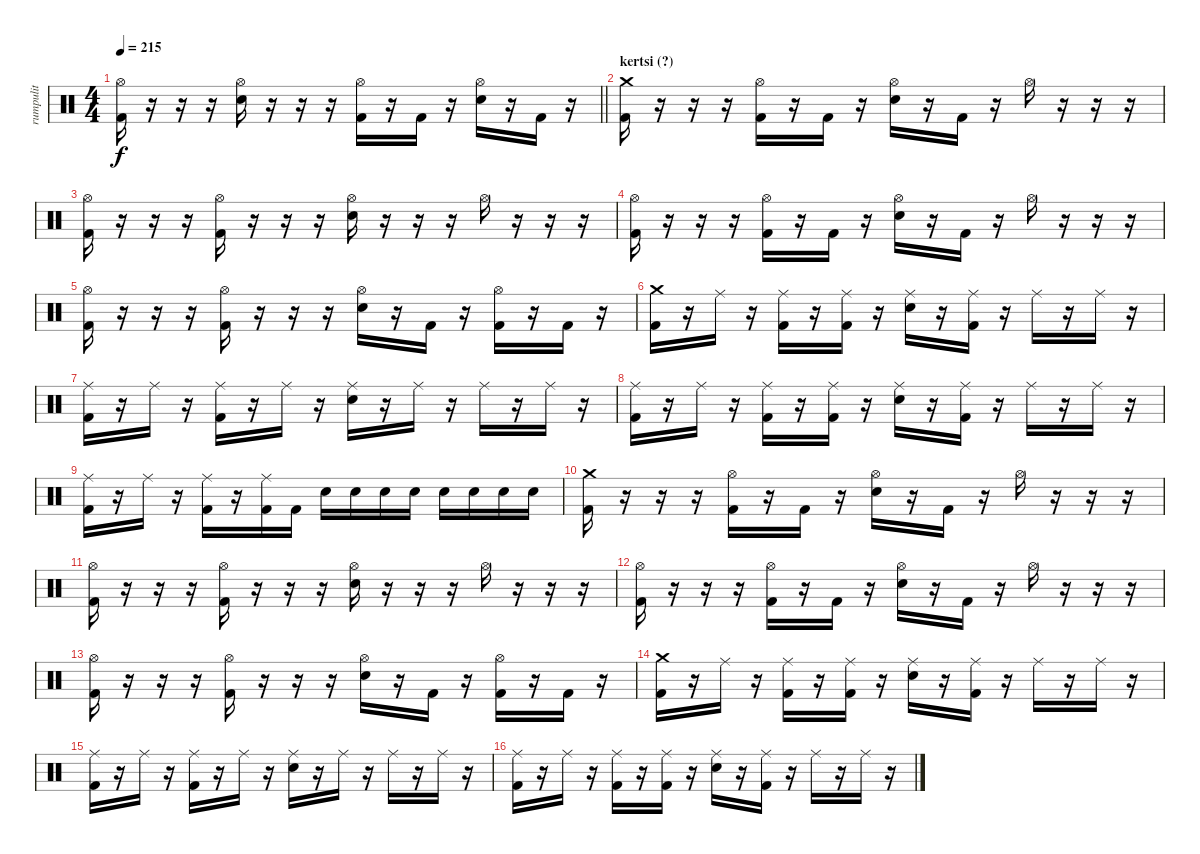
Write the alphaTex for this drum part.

\track ("rumpulit" "rumpulit") {instrument percussion}
\staff {score}
\articulation defaults
\ts (4 4)
\tempo 215
\clef neutral
\barLineRight lightlight
\ks c
("Hi-Hat (open)" "Kick (hit) 2").16{dy f} r.16 r.16 r.16 ("Hi-Hat (open)" "Electric Snare (hit)").16 r.16 r.16 r.16 ("Hi-Hat (open)" "Kick (hit) 2").16 r.16 "Kick (hit) 2".16 r.16 ("Hi-Hat (open)" "Electric Snare (hit)").16 r.16 "Kick (hit) 2".16 r.16 |
\section ("" "kertsi (?)")
("Crash medium (hit)" "Kick (hit) 2").16 r.16 r.16 r.16 ("Hi-Hat (open)" "Kick (hit) 2").16 r.16 "Kick (hit) 2".16 r.16 ("Hi-Hat (open)" "Electric Snare (hit)").16 r.16 "Kick (hit) 2".16 r.16 "Hi-Hat (open)".16 r.16 r.16 r.16 |
("Hi-Hat (open)" "Kick (hit) 2").16 r.16 r.16 r.16 ("Hi-Hat (open)" "Kick (hit) 2").16 r.16 r.16 r.16 ("Hi-Hat (open)" "Electric Snare (hit)").16 r.16 r.16 r.16 "Hi-Hat (open)".16 r.16 r.16 r.16 |
("Hi-Hat (open)" "Kick (hit) 2").16 r.16 r.16 r.16 ("Hi-Hat (open)" "Kick (hit) 2").16 r.16 "Kick (hit) 2".16 r.16 ("Hi-Hat (open)" "Electric Snare (hit)").16 r.16 "Kick (hit) 2".16 r.16 "Hi-Hat (open)".16 r.16 r.16 r.16 |
("Hi-Hat (open)" "Kick (hit) 2").16 r.16 r.16 r.16 ("Hi-Hat (open)" "Kick (hit) 2").16 r.16 r.16 r.16 ("Hi-Hat (open)" "Electric Snare (hit)").16 r.16 "Kick (hit) 2".16 r.16 ("Hi-Hat (open)" "Kick (hit) 2").16 r.16 "Kick (hit) 2".16 r.16 |
("Crash medium (hit)" "Kick (hit) 2").16 r.16 "Ride (middle)".16 r.16 ("Ride (middle)" "Kick (hit) 2").16 r.16 ("Ride (middle)" "Kick (hit) 2").16 r.16 ("Ride (middle)" "Electric Snare (hit)").16 r.16 ("Ride (middle)" "Kick (hit) 2").16 r.16 "Ride (middle)".16 r.16 "Ride (middle)".16 r.16 |
("Ride (middle)" "Kick (hit) 2").16 r.16 "Ride (middle)".16 r.16 ("Ride (middle)" "Kick (hit) 2").16 r.16 "Ride (middle)".16 r.16 ("Ride (middle)" "Electric Snare (hit)").16 r.16 "Ride (middle)".16 r.16 "Ride (middle)".16 r.16 "Ride (middle)".16 r.16 |
("Ride (middle)" "Kick (hit) 2").16 r.16 "Ride (middle)".16 r.16 ("Ride (middle)" "Kick (hit) 2").16 r.16 ("Ride (middle)" "Kick (hit) 2").16 r.16 ("Ride (middle)" "Electric Snare (hit)").16 r.16 ("Ride (middle)" "Kick (hit) 2").16 r.16 "Ride (middle)".16 r.16 "Ride (middle)".16 r.16 |
("Ride (middle)" "Kick (hit) 2").16 r.16 "Ride (middle)".16 r.16 ("Ride (middle)" "Kick (hit) 2").16 r.16 ("Ride (middle)" "Kick (hit) 2").16 "Kick (hit) 2".16 "Electric Snare (hit)".16 "Electric Snare (hit)".16 "Electric Snare (hit)".16 "Electric Snare (hit)".16 "Electric Snare (hit)".16 "Electric Snare (hit)".16 "Electric Snare (hit)".16 "Electric Snare (hit)".16 |
("Crash medium (hit)" "Kick (hit) 2").16 r.16 r.16 r.16 ("Hi-Hat (open)" "Kick (hit) 2").16 r.16 "Kick (hit) 2".16 r.16 ("Hi-Hat (open)" "Electric Snare (hit)").16 r.16 "Kick (hit) 2".16 r.16 "Hi-Hat (open)".16 r.16 r.16 r.16 |
("Hi-Hat (open)" "Kick (hit) 2").16 r.16 r.16 r.16 ("Hi-Hat (open)" "Kick (hit) 2").16 r.16 r.16 r.16 ("Hi-Hat (open)" "Electric Snare (hit)").16 r.16 r.16 r.16 "Hi-Hat (open)".16 r.16 r.16 r.16 |
("Hi-Hat (open)" "Kick (hit) 2").16 r.16 r.16 r.16 ("Hi-Hat (open)" "Kick (hit) 2").16 r.16 "Kick (hit) 2".16 r.16 ("Hi-Hat (open)" "Electric Snare (hit)").16 r.16 "Kick (hit) 2".16 r.16 "Hi-Hat (open)".16 r.16 r.16 r.16 |
("Hi-Hat (open)" "Kick (hit) 2").16 r.16 r.16 r.16 ("Hi-Hat (open)" "Kick (hit) 2").16 r.16 r.16 r.16 ("Hi-Hat (open)" "Electric Snare (hit)").16 r.16 "Kick (hit) 2".16 r.16 ("Hi-Hat (open)" "Kick (hit) 2").16 r.16 "Kick (hit) 2".16 r.16 |
("Crash medium (hit)" "Kick (hit) 2").16 r.16 "Ride (middle)".16 r.16 ("Ride (middle)" "Kick (hit) 2").16 r.16 ("Ride (middle)" "Kick (hit) 2").16 r.16 ("Ride (middle)" "Electric Snare (hit)").16 r.16 ("Ride (middle)" "Kick (hit) 2").16 r.16 "Ride (middle)".16 r.16 "Ride (middle)".16 r.16 |
("Ride (middle)" "Kick (hit) 2").16 r.16 "Ride (middle)".16 r.16 ("Ride (middle)" "Kick (hit) 2").16 r.16 "Ride (middle)".16 r.16 ("Ride (middle)" "Electric Snare (hit)").16 r.16 "Ride (middle)".16 r.16 "Ride (middle)".16 r.16 "Ride (middle)".16 r.16 |
("Ride (middle)" "Kick (hit) 2").16 r.16 "Ride (middle)".16 r.16 ("Ride (middle)" "Kick (hit) 2").16 r.16 ("Ride (middle)" "Kick (hit) 2").16 r.16 ("Ride (middle)" "Electric Snare (hit)").16 r.16 ("Ride (middle)" "Kick (hit) 2").16 r.16 "Ride (middle)".16 r.16 "Ride (middle)".16 r.16
